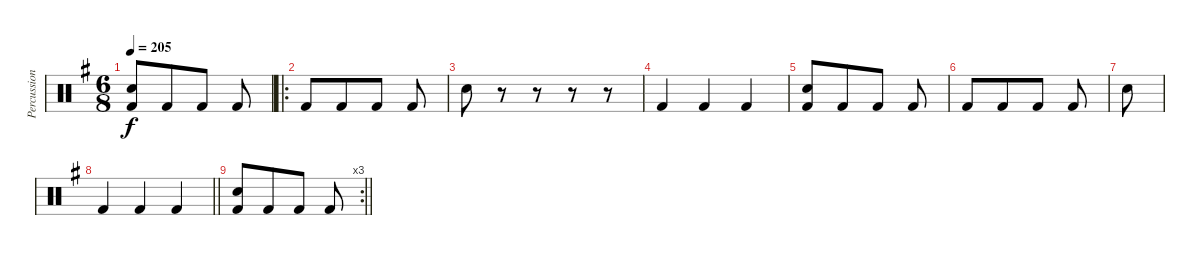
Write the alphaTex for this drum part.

\track ("Percussion" "Percussion") {instrument percussion}
\staff {score}
\articulation defaults
\ts (6 8)
\tempo 205
\clef neutral
\ks g
("Electric Snare (hit)" "Kick (hit) 2").8{dy f} "Kick (hit) 2".8 "Kick (hit) 2".8 "Kick (hit) 2".8 |
\ro "Kick (hit) 2".8 "Kick (hit) 2".8 "Kick (hit) 2".8 "Kick (hit) 2".8
|
"Electric Snare (hit)".8 r.8 r.8 r.8 r.8 |
"Kick (hit) 2".4 "Kick (hit) 2".4 "Kick (hit) 2".4 |
("Electric Snare (hit)" "Kick (hit) 2").8 "Kick (hit) 2".8 "Kick (hit) 2".8 "Kick (hit) 2".8 |
"Kick (hit) 2".8 "Kick (hit) 2".8 "Kick (hit) 2".8 "Kick (hit) 2".8 |
"Electric Snare (hit)".8 |
\barLineRight lightlight "Kick (hit) 2".4 "Kick (hit) 2".4 "Kick (hit) 2".4
|
\rc 3
\barLineRight lightlight
("Electric Snare (hit)" "Kick (hit) 2").8 "Kick (hit) 2".8 "Kick (hit) 2".8 "Kick (hit) 2".8
